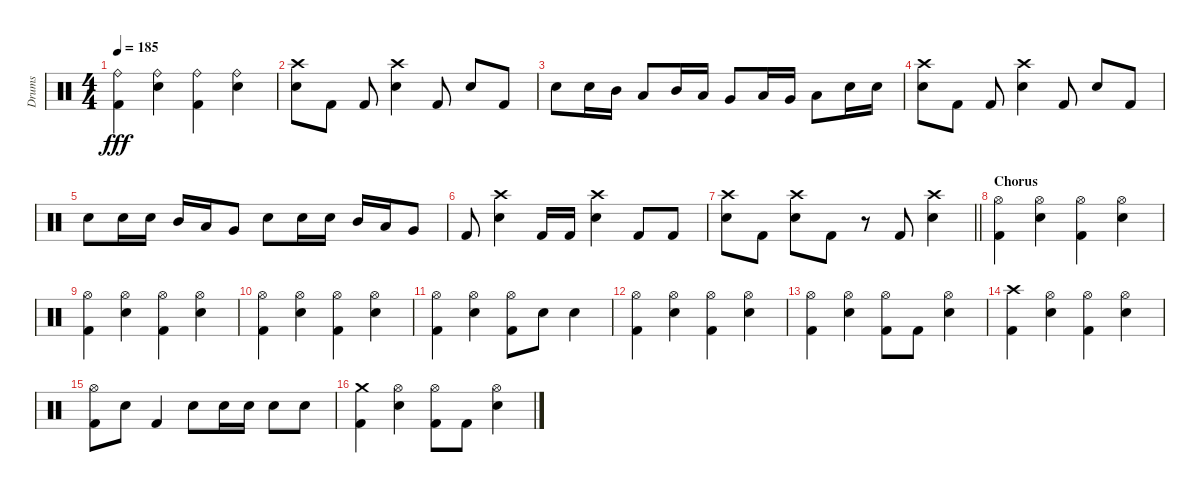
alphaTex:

\track ("Drums" "Drums") {instrument percussion}
\staff {score}
\articulation defaults
\ts (4 4)
\tempo 185
\clef neutral
\ks c
("Ride (bell)" "Kick (hit) 2").4{dy fff} ("Ride (bell)" "Electric Snare (hit)").4 ("Ride (bell)" "Kick (hit) 2").4 ("Ride (bell)" "Electric Snare (hit)").4 |
("Crash high (hit)" "Electric Snare (hit)").8 "Kick (hit) 2".8 "Kick (hit) 2".8 ("Crash high (hit)" "Electric Snare (hit)").4 "Kick (hit) 2".8 "Electric Snare (hit)".8 "Kick (hit) 2".8 |
"Electric Snare (hit)".8 "Electric Snare (hit)".16 "Mid Tom (hit)".16 "Low Tom (hit)".8 "Mid Tom (hit)".16 "Low Tom (hit)".16 "Very Low Tom (hit)".8 "Low Tom (hit)".16 "Very Low Tom (hit)".16 "Low Floor Tom (hit)".8 "Electric Snare (hit)".16 "Electric Snare (hit)".16 |
("Crash high (hit)" "Electric Snare (hit)").8 "Kick (hit) 2".8 "Kick (hit) 2".8 ("Crash high (hit)" "Electric Snare (hit)").4 "Kick (hit) 2".8 "Electric Snare (hit)".8 "Kick (hit) 2".8 |
"Electric Snare (hit)".8 "Electric Snare (hit)".16 "Electric Snare (hit)".16 "Mid Tom (hit)".16 "Low Tom (hit)".16 "Very Low Tom (hit)".8 "Electric Snare (hit)".8 "Electric Snare (hit)".16 "Electric Snare (hit)".16 "Mid Tom (hit)".16 "Low Tom (hit)".16 "Very Low Tom (hit)".8 |
"Kick (hit) 2".8 ("Crash high (hit)" "Electric Snare (hit)").4 "Kick (hit) 2".16 "Kick (hit) 2".16 ("Crash high (hit)" "Electric Snare (hit)").4 "Kick (hit) 2".8 "Kick (hit) 2".8 |
\barLineRight lightlight
("Crash high (hit)" "Electric Snare (hit)").8 "Kick (hit) 2".8 ("Crash high (hit)" "Electric Snare (hit)").8 "Kick (hit) 2".8 r.8 "Kick (hit) 2".8 ("Crash high (hit)" "Electric Snare (hit)").4 |
\section ("" "Chorus")
("Hi-Hat (open)" "Kick (hit) 2").4 ("Hi-Hat (open)" "Electric Snare (hit)").4 ("Hi-Hat (open)" "Kick (hit) 2").4 ("Hi-Hat (open)" "Electric Snare (hit)").4 |
("Hi-Hat (open)" "Kick (hit) 2").4 ("Hi-Hat (open)" "Electric Snare (hit)").4 ("Hi-Hat (open)" "Kick (hit) 2").4 ("Hi-Hat (open)" "Electric Snare (hit)").4 |
("Hi-Hat (open)" "Kick (hit) 2").4 ("Hi-Hat (open)" "Electric Snare (hit)").4 ("Hi-Hat (open)" "Kick (hit) 2").4 ("Hi-Hat (open)" "Electric Snare (hit)").4 |
("Hi-Hat (open)" "Kick (hit) 2").4 ("Hi-Hat (open)" "Electric Snare (hit)").4 ("Hi-Hat (open)" "Kick (hit) 2").8 "Electric Snare (hit)".8 "Electric Snare (hit)".4 |
("Hi-Hat (open)" "Kick (hit) 2").4 ("Hi-Hat (open)" "Electric Snare (hit)").4 ("Hi-Hat (open)" "Kick (hit) 2").4 ("Hi-Hat (open)" "Electric Snare (hit)").4 |
("Hi-Hat (open)" "Kick (hit) 2").4 ("Hi-Hat (open)" "Electric Snare (hit)").4 ("Hi-Hat (open)" "Kick (hit) 2").8 "Kick (hit) 2".8 ("Hi-Hat (open)" "Electric Snare (hit)").4 |
("Crash high (hit)" "Kick (hit) 2").4 ("Hi-Hat (open)" "Electric Snare (hit)").4 ("Hi-Hat (open)" "Kick (hit) 2").4 ("Hi-Hat (open)" "Electric Snare (hit)").4 |
("Hi-Hat (open)" "Kick (hit) 2").8 "Electric Snare (hit)".8 "Kick (hit) 2".4 "Electric Snare (hit)".8 "Electric Snare (hit)".16 "Electric Snare (hit)".16 "Electric Snare (hit)".8 "Electric Snare (hit)".8 |
("Crash medium (hit)" "Kick (hit) 2").4 ("Hi-Hat (open)" "Electric Snare (hit)").4 ("Hi-Hat (open)" "Kick (hit) 2").8 "Kick (hit) 2".8 ("Hi-Hat (open)" "Electric Snare (hit)").4
